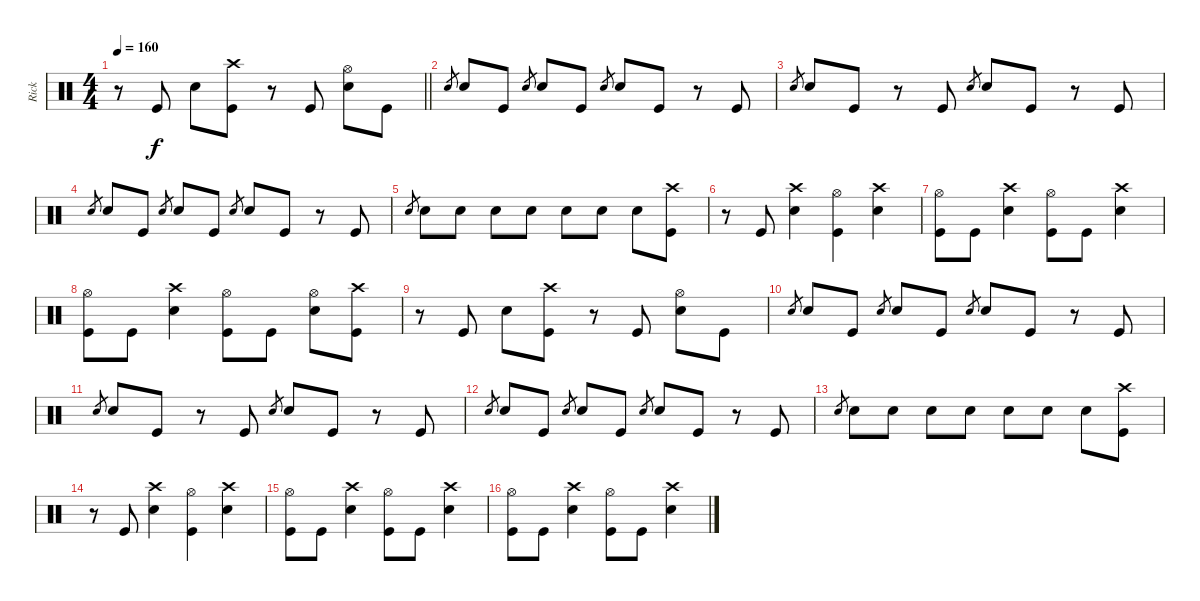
\track ("Rick" "Rick") {instrument percussion}
\staff {score}
\articulation defaults
\ts (4 4)
\tempo 160
\clef neutral
\barLineRight lightlight
\ks c
r.8{dy f} "Kick (hit)".8 "Snare (hit) 2".8 ("Crash high (hit)" "Kick (hit)").8 r.8 "Kick (hit)".8 ("Hi-Hat (open)" "Snare (hit) 2").8 "Kick (hit)".8 |
"Snare (hit) 2".8{gr} "Snare (hit) 2".8 "Kick (hit)".8 "Snare (hit) 2".8{gr} "Snare (hit) 2".8 "Kick (hit)".8 "Snare (hit) 2".8{gr} "Snare (hit) 2".8 "Kick (hit)".8 r.8 "Kick (hit)".8 |
"Snare (hit) 2".8{gr} "Snare (hit) 2".8 "Kick (hit)".8 r.8 "Kick (hit)".8 "Snare (hit) 2".8{gr} "Snare (hit) 2".8 "Kick (hit)".8 r.8 "Kick (hit)".8 |
"Snare (hit) 2".8{gr} "Snare (hit) 2".8 "Kick (hit)".8 "Snare (hit) 2".8{gr} "Snare (hit) 2".8 "Kick (hit)".8 "Snare (hit) 2".8{gr} "Snare (hit) 2".8 "Kick (hit)".8 r.8 "Kick (hit)".8 |
"Snare (hit) 2".8{gr} "Snare (hit) 2".8 "Snare (hit) 2".8 "Snare (hit) 2".8 "Snare (hit) 2".8 "Snare (hit) 2".8 "Snare (hit) 2".8 "Snare (hit) 2".8 ("Crash high (hit)" "Kick (hit)").8 |
r.8 "Kick (hit)".8 ("Crash high (hit)" "Snare (hit) 2").4 ("Hi-Hat (open)" "Kick (hit)").4 ("Crash high (hit)" "Snare (hit) 2").4 |
("Hi-Hat (open)" "Kick (hit)").8 "Kick (hit)".8 ("Crash high (hit)" "Snare (hit) 2").4 ("Hi-Hat (open)" "Kick (hit)").8 "Kick (hit)".8 ("Crash high (hit)" "Snare (hit) 2").4 |
("Hi-Hat (open)" "Kick (hit)").8 "Kick (hit)".8 ("Crash high (hit)" "Snare (hit) 2").4 ("Hi-Hat (open)" "Kick (hit)").8 "Kick (hit)".8 ("Hi-Hat (open)" "Snare (hit) 2").8 ("Crash high (hit)" "Kick (hit)").8 |
r.8 "Kick (hit)".8 "Snare (hit) 2".8 ("Crash high (hit)" "Kick (hit)").8 r.8 "Kick (hit)".8 ("Hi-Hat (open)" "Snare (hit) 2").8 "Kick (hit)".8 |
"Snare (hit) 2".8{gr} "Snare (hit) 2".8 "Kick (hit)".8 "Snare (hit) 2".8{gr} "Snare (hit) 2".8 "Kick (hit)".8 "Snare (hit) 2".8{gr} "Snare (hit) 2".8 "Kick (hit)".8 r.8 "Kick (hit)".8 |
"Snare (hit) 2".8{gr} "Snare (hit) 2".8 "Kick (hit)".8 r.8 "Kick (hit)".8 "Snare (hit) 2".8{gr} "Snare (hit) 2".8 "Kick (hit)".8 r.8 "Kick (hit)".8 |
"Snare (hit) 2".8{gr} "Snare (hit) 2".8 "Kick (hit)".8 "Snare (hit) 2".8{gr} "Snare (hit) 2".8 "Kick (hit)".8 "Snare (hit) 2".8{gr} "Snare (hit) 2".8 "Kick (hit)".8 r.8 "Kick (hit)".8 |
"Snare (hit) 2".8{gr} "Snare (hit) 2".8 "Snare (hit) 2".8 "Snare (hit) 2".8 "Snare (hit) 2".8 "Snare (hit) 2".8 "Snare (hit) 2".8 "Snare (hit) 2".8 ("Crash high (hit)" "Kick (hit)").8 |
r.8 "Kick (hit)".8 ("Crash high (hit)" "Snare (hit) 2").4 ("Hi-Hat (open)" "Kick (hit)").4 ("Crash high (hit)" "Snare (hit) 2").4 |
("Hi-Hat (open)" "Kick (hit)").8 "Kick (hit)".8 ("Crash high (hit)" "Snare (hit) 2").4 ("Hi-Hat (open)" "Kick (hit)").8 "Kick (hit)".8 ("Crash high (hit)" "Snare (hit) 2").4 |
("Hi-Hat (open)" "Kick (hit)").8 "Kick (hit)".8 ("Crash high (hit)" "Snare (hit) 2").4 ("Hi-Hat (open)" "Kick (hit)").8 "Kick (hit)".8 ("Crash high (hit)" "Snare (hit) 2").4
